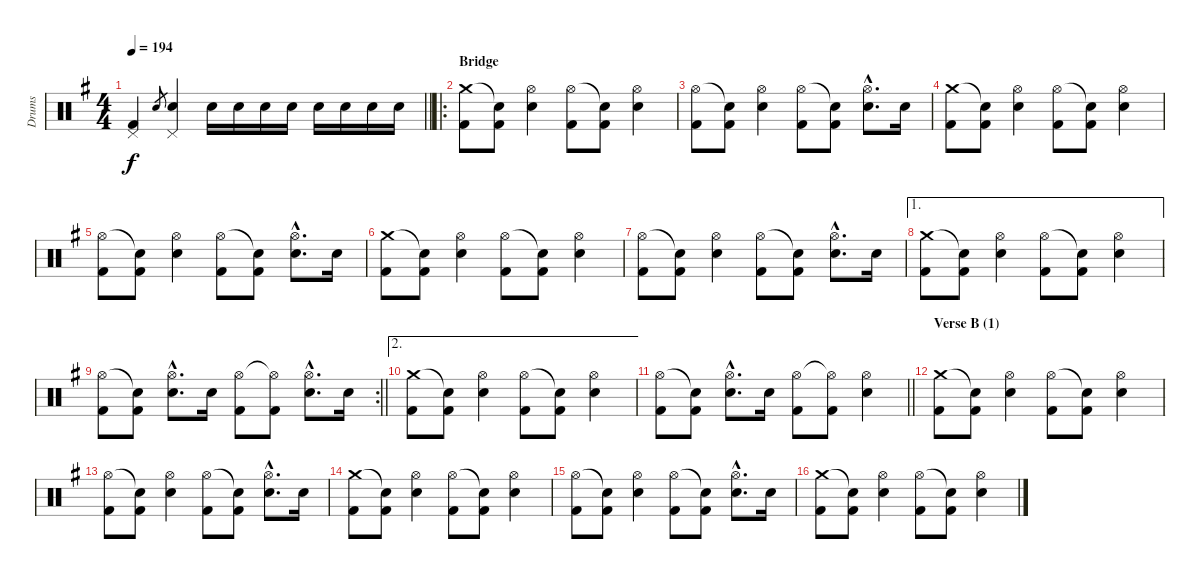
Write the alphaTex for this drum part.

\track ("Drums" "Drums") {instrument percussion}
\staff {score}
\articulation defaults
\ts (4 4)
\tempo 194
\clef neutral
\barLineRight lightlight
\ks eminor
("Pedal Hi-Hat (hit)" "Kick (hit) 2").4{dy f} "Electric Snare (hit)".8{gr} ("Pedal Hi-Hat (hit)" "Electric Snare (hit)").4 "Electric Snare (hit)".16 "Electric Snare (hit)".16 "Electric Snare (hit)".16 "Electric Snare (hit)".16 "Electric Snare (hit)".16 "Electric Snare (hit)".16 "Electric Snare (hit)".16 "Electric Snare (hit)".16 |
\ro
\section ("" "Bridge")
("Crash medium (hit)" "Kick (hit) 2").8 ("Snare (hit)"{t} "Kick (hit) 2").8 ("Hi-Hat (open)" "Electric Snare (hit)").4 ("Hi-Hat (open)" "Kick (hit) 2").8 ("Snare (hit)"{t} "Kick (hit) 2").8 ("Hi-Hat (open)" "Electric Snare (hit)").4 |
("Hi-Hat (open)" "Kick (hit) 2").8 ("Snare (hit)"{t} "Kick (hit) 2").8 ("Hi-Hat (open)" "Electric Snare (hit)").4 ("Hi-Hat (open)" "Kick (hit) 2").8 ("Snare (hit)"{t} "Kick (hit) 2").8 ("Hi-Hat (open)"{hac} "Electric Snare (hit)"{hac}).8{d} "Electric Snare (hit)".16 |
("Crash medium (hit)" "Kick (hit) 2").8 ("Snare (hit)"{t} "Kick (hit) 2").8 ("Hi-Hat (open)" "Electric Snare (hit)").4 ("Hi-Hat (open)" "Kick (hit) 2").8 ("Snare (hit)"{t} "Kick (hit) 2").8 ("Hi-Hat (open)" "Electric Snare (hit)").4 |
("Hi-Hat (open)" "Kick (hit) 2").8 ("Snare (hit)"{t} "Kick (hit) 2").8 ("Hi-Hat (open)" "Electric Snare (hit)").4 ("Hi-Hat (open)" "Kick (hit) 2").8 ("Snare (hit)"{t} "Kick (hit) 2").8 ("Hi-Hat (open)"{hac} "Electric Snare (hit)"{hac}).8{d} "Electric Snare (hit)".16 |
("Crash medium (hit)" "Kick (hit) 2").8 ("Snare (hit)"{t} "Kick (hit) 2").8 ("Hi-Hat (open)" "Electric Snare (hit)").4 ("Hi-Hat (open)" "Kick (hit) 2").8 ("Snare (hit)"{t} "Kick (hit) 2").8 ("Hi-Hat (open)" "Electric Snare (hit)").4 |
("Hi-Hat (open)" "Kick (hit) 2").8 ("Snare (hit)"{t} "Kick (hit) 2").8 ("Hi-Hat (open)" "Electric Snare (hit)").4 ("Hi-Hat (open)" "Kick (hit) 2").8 ("Snare (hit)"{t} "Kick (hit) 2").8 ("Hi-Hat (open)"{hac} "Electric Snare (hit)"{hac}).8{d} "Electric Snare (hit)".16 |
\ae 1
("Crash medium (hit)" "Kick (hit) 2").8 ("Snare (hit)"{t} "Kick (hit) 2").8 ("Hi-Hat (open)" "Electric Snare (hit)").4 ("Hi-Hat (open)" "Kick (hit) 2").8 ("Snare (hit)"{t} "Kick (hit) 2").8 ("Hi-Hat (open)" "Electric Snare (hit)").4 |
\rc 2
\barLineRight lightlight
("Hi-Hat (open)" "Kick (hit) 2").8 ("Snare (hit)"{t} "Kick (hit) 2").8 ("Hi-Hat (open)"{hac} "Electric Snare (hit)"{hac}).8{d} "Electric Snare (hit)".16 ("Hi-Hat (open)" "Kick (hit) 2").8 ("Hi-Hat (open)"{t} "Kick (hit) 2").8 ("Hi-Hat (open)"{hac} "Electric Snare (hit)"{hac}).8{d} "Electric Snare (hit)".16 |
\ae 2
("Crash medium (hit)" "Kick (hit) 2").8 ("Snare (hit)"{t} "Kick (hit) 2").8 ("Hi-Hat (open)" "Electric Snare (hit)").4 ("Hi-Hat (open)" "Kick (hit) 2").8 ("Snare (hit)"{t} "Kick (hit) 2").8 ("Hi-Hat (open)" "Electric Snare (hit)").4 |
\barLineRight lightlight
("Hi-Hat (open)" "Kick (hit) 2").8 ("Snare (hit)"{t} "Kick (hit) 2").8 ("Hi-Hat (open)"{hac} "Electric Snare (hit)"{hac}).8{d} "Electric Snare (hit)".16 ("Hi-Hat (open)" "Kick (hit) 2").8 ("Hi-Hat (open)"{t} "Kick (hit) 2").8 ("Hi-Hat (open)" "Electric Snare (hit)").4 |
\section ("" "Verse B (1)")
("Crash medium (hit)" "Kick (hit) 2").8 ("Snare (hit)"{t} "Kick (hit) 2").8 ("Hi-Hat (open)" "Electric Snare (hit)").4 ("Hi-Hat (open)" "Kick (hit) 2").8 ("Snare (hit)"{t} "Kick (hit) 2").8 ("Hi-Hat (open)" "Electric Snare (hit)").4 |
("Hi-Hat (open)" "Kick (hit) 2").8 ("Snare (hit)"{t} "Kick (hit) 2").8 ("Hi-Hat (open)" "Electric Snare (hit)").4 ("Hi-Hat (open)" "Kick (hit) 2").8 ("Snare (hit)"{t} "Kick (hit) 2").8 ("Hi-Hat (open)"{hac} "Electric Snare (hit)"{hac}).8{d} "Electric Snare (hit)".16 |
("Crash medium (hit)" "Kick (hit) 2").8 ("Snare (hit)"{t} "Kick (hit) 2").8 ("Hi-Hat (open)" "Electric Snare (hit)").4 ("Hi-Hat (open)" "Kick (hit) 2").8 ("Snare (hit)"{t} "Kick (hit) 2").8 ("Hi-Hat (open)" "Electric Snare (hit)").4 |
("Hi-Hat (open)" "Kick (hit) 2").8 ("Snare (hit)"{t} "Kick (hit) 2").8 ("Hi-Hat (open)" "Electric Snare (hit)").4 ("Hi-Hat (open)" "Kick (hit) 2").8 ("Snare (hit)"{t} "Kick (hit) 2").8 ("Hi-Hat (open)"{hac} "Electric Snare (hit)"{hac}).8{d} "Electric Snare (hit)".16 |
("Crash medium (hit)" "Kick (hit) 2").8 ("Snare (hit)"{t} "Kick (hit) 2").8 ("Hi-Hat (open)" "Electric Snare (hit)").4 ("Hi-Hat (open)" "Kick (hit) 2").8 ("Snare (hit)"{t} "Kick (hit) 2").8 ("Hi-Hat (open)" "Electric Snare (hit)").4
